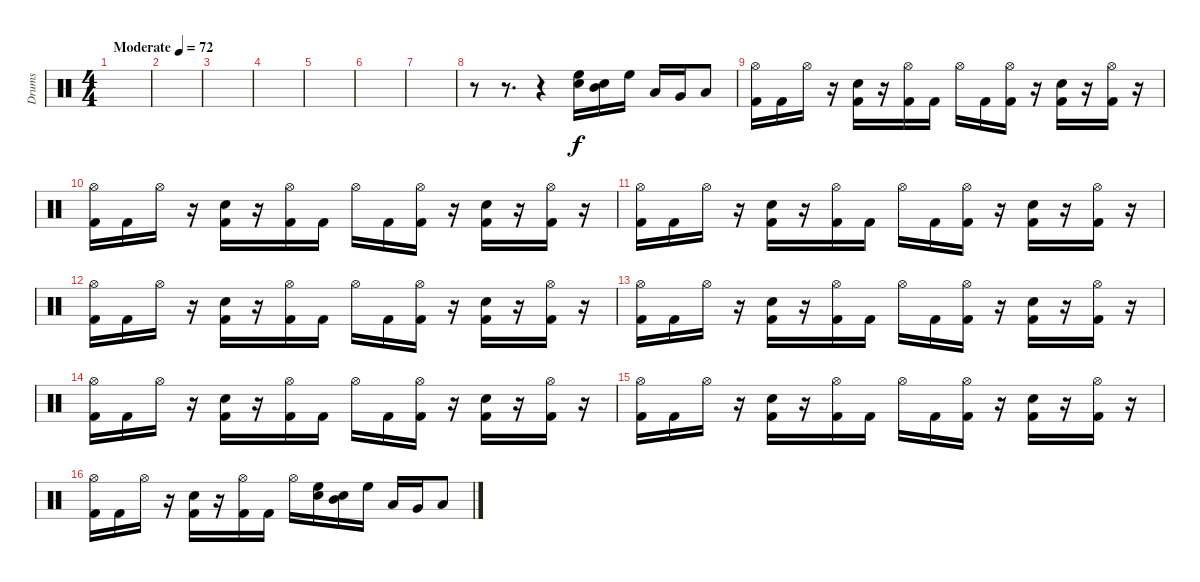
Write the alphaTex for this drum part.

\track ("Drums" "Drums") {instrument percussion}
\staff {score}
\articulation defaults
\ts (4 4)
\tempo (72 "Moderate")
\clef neutral
\ks c
|
|
|
|
|
|
|
r.8 r.8{d} r.4 ("Snare (hit) 2" "High Floor Tom (hit)").16 ("Snare (hit) 2" "Mid Tom (hit)").16 "High Floor Tom (hit)".16 "Low Tom (hit)".16 "Very Low Tom (hit)".16 "Low Floor Tom (hit)".8 |
("Hi-Hat (open)" "Kick (hit) 2").16 "Kick (hit) 2".16 "Hi-Hat (open)".16 r.16 ("Snare (hit) 2" "Kick (hit) 2").16 r.16 ("Hi-Hat (open)" "Kick (hit) 2").16 "Kick (hit) 2".16 "Hi-Hat (open)".16 "Kick (hit) 2".16 ("Hi-Hat (open)" "Kick (hit) 2").16 r.16 ("Snare (hit) 2" "Kick (hit) 2").16 r.16 ("Hi-Hat (open)" "Kick (hit) 2").16 r.16 |
("Hi-Hat (open)" "Kick (hit) 2").16 "Kick (hit) 2".16 "Hi-Hat (open)".16 r.16 ("Snare (hit) 2" "Kick (hit) 2").16 r.16 ("Hi-Hat (open)" "Kick (hit) 2").16 "Kick (hit) 2".16 "Hi-Hat (open)".16 "Kick (hit) 2".16 ("Hi-Hat (open)" "Kick (hit) 2").16 r.16 ("Snare (hit) 2" "Kick (hit) 2").16 r.16 ("Hi-Hat (open)" "Kick (hit) 2").16 r.16 |
("Hi-Hat (open)" "Kick (hit) 2").16 "Kick (hit) 2".16 "Hi-Hat (open)".16 r.16 ("Snare (hit) 2" "Kick (hit) 2").16 r.16 ("Hi-Hat (open)" "Kick (hit) 2").16 "Kick (hit) 2".16 "Hi-Hat (open)".16 "Kick (hit) 2".16 ("Hi-Hat (open)" "Kick (hit) 2").16 r.16 ("Snare (hit) 2" "Kick (hit) 2").16 r.16 ("Hi-Hat (open)" "Kick (hit) 2").16 r.16 |
("Hi-Hat (open)" "Kick (hit) 2").16 "Kick (hit) 2".16 "Hi-Hat (open)".16 r.16 ("Snare (hit) 2" "Kick (hit) 2").16 r.16 ("Hi-Hat (open)" "Kick (hit) 2").16 "Kick (hit) 2".16 "Hi-Hat (open)".16 "Kick (hit) 2".16 ("Hi-Hat (open)" "Kick (hit) 2").16 r.16 ("Snare (hit) 2" "Kick (hit) 2").16 r.16 ("Hi-Hat (open)" "Kick (hit) 2").16 r.16 |
("Hi-Hat (open)" "Kick (hit) 2").16 "Kick (hit) 2".16 "Hi-Hat (open)".16 r.16 ("Snare (hit) 2" "Kick (hit) 2").16 r.16 ("Hi-Hat (open)" "Kick (hit) 2").16 "Kick (hit) 2".16 "Hi-Hat (open)".16 "Kick (hit) 2".16 ("Hi-Hat (open)" "Kick (hit) 2").16 r.16 ("Snare (hit) 2" "Kick (hit) 2").16 r.16 ("Hi-Hat (open)" "Kick (hit) 2").16 r.16 |
("Hi-Hat (open)" "Kick (hit) 2").16 "Kick (hit) 2".16 "Hi-Hat (open)".16 r.16 ("Snare (hit) 2" "Kick (hit) 2").16 r.16 ("Hi-Hat (open)" "Kick (hit) 2").16 "Kick (hit) 2".16 "Hi-Hat (open)".16 "Kick (hit) 2".16 ("Hi-Hat (open)" "Kick (hit) 2").16 r.16 ("Snare (hit) 2" "Kick (hit) 2").16 r.16 ("Hi-Hat (open)" "Kick (hit) 2").16 r.16 |
("Hi-Hat (open)" "Kick (hit) 2").16 "Kick (hit) 2".16 "Hi-Hat (open)".16 r.16 ("Snare (hit) 2" "Kick (hit) 2").16 r.16 ("Hi-Hat (open)" "Kick (hit) 2").16 "Kick (hit) 2".16 "Hi-Hat (open)".16 "Kick (hit) 2".16 ("Hi-Hat (open)" "Kick (hit) 2").16 r.16 ("Snare (hit) 2" "Kick (hit) 2").16 r.16 ("Hi-Hat (open)" "Kick (hit) 2").16 r.16 |
("Hi-Hat (open)" "Kick (hit) 2").16 "Kick (hit) 2".16 "Hi-Hat (open)".16 r.16 ("Snare (hit) 2" "Kick (hit) 2").16 r.16 ("Hi-Hat (open)" "Kick (hit) 2").16 "Kick (hit) 2".16 "Hi-Hat (open)".16 ("Snare (hit) 2" "High Floor Tom (hit)").16 ("Snare (hit) 2" "Mid Tom (hit)").16 "High Floor Tom (hit)".16 "Low Tom (hit)".16 "Very Low Tom (hit)".16 "Low Floor Tom (hit)".8
